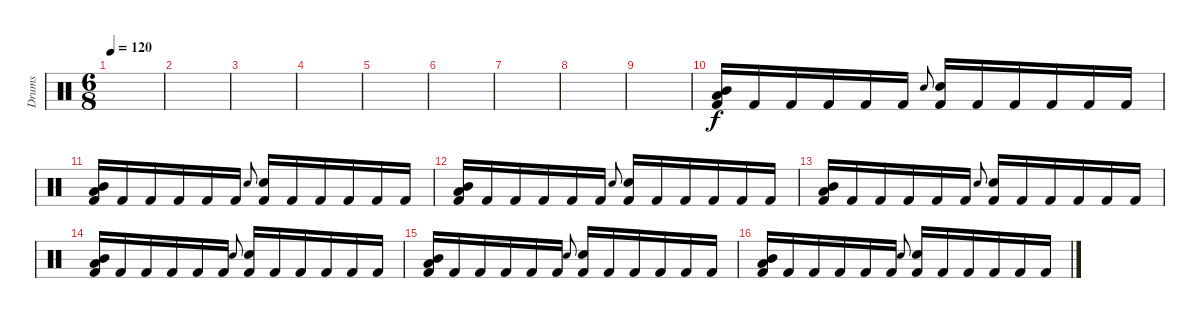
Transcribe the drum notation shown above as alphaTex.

\track ("Drums" "Drums") {instrument percussion}
\staff {score}
\articulation defaults
\ts (6 8)
\tempo 120
\clef neutral
\ks c
|
|
|
|
|
|
|
|
|
("Mid Tom (hit)" "Low Tom (hit)" "Kick (hit) 2").16 "Kick (hit) 2".16 "Kick (hit) 2".16 "Kick (hit) 2".16 "Kick (hit) 2".16 "Kick (hit) 2".16 "Electric Snare (hit)".8{gr onbeat} ("Electric Snare (hit)" "Kick (hit) 2").16 "Kick (hit) 2".16 "Kick (hit) 2".16 "Kick (hit) 2".16 "Kick (hit) 2".16 "Kick (hit) 2".16 |
("Mid Tom (hit)" "Low Tom (hit)" "Kick (hit) 2").16 "Kick (hit) 2".16 "Kick (hit) 2".16 "Kick (hit) 2".16 "Kick (hit) 2".16 "Kick (hit) 2".16 "Electric Snare (hit)".8{gr onbeat} ("Electric Snare (hit)" "Kick (hit) 2").16 "Kick (hit) 2".16 "Kick (hit) 2".16 "Kick (hit) 2".16 "Kick (hit) 2".16 "Kick (hit) 2".16 |
("Mid Tom (hit)" "Low Tom (hit)" "Kick (hit) 2").16 "Kick (hit) 2".16 "Kick (hit) 2".16 "Kick (hit) 2".16 "Kick (hit) 2".16 "Kick (hit) 2".16 "Electric Snare (hit)".8{gr onbeat} ("Electric Snare (hit)" "Kick (hit) 2").16 "Kick (hit) 2".16 "Kick (hit) 2".16 "Kick (hit) 2".16 "Kick (hit) 2".16 "Kick (hit) 2".16 |
("Mid Tom (hit)" "Low Tom (hit)" "Kick (hit) 2").16 "Kick (hit) 2".16 "Kick (hit) 2".16 "Kick (hit) 2".16 "Kick (hit) 2".16 "Kick (hit) 2".16 "Electric Snare (hit)".8{gr onbeat} ("Electric Snare (hit)" "Kick (hit) 2").16 "Kick (hit) 2".16 "Kick (hit) 2".16 "Kick (hit) 2".16 "Kick (hit) 2".16 "Kick (hit) 2".16 |
("Mid Tom (hit)" "Low Tom (hit)" "Kick (hit) 2").16 "Kick (hit) 2".16 "Kick (hit) 2".16 "Kick (hit) 2".16 "Kick (hit) 2".16 "Kick (hit) 2".16 "Electric Snare (hit)".8{gr onbeat} ("Electric Snare (hit)" "Kick (hit) 2").16 "Kick (hit) 2".16 "Kick (hit) 2".16 "Kick (hit) 2".16 "Kick (hit) 2".16 "Kick (hit) 2".16 |
("Mid Tom (hit)" "Low Tom (hit)" "Kick (hit) 2").16 "Kick (hit) 2".16 "Kick (hit) 2".16 "Kick (hit) 2".16 "Kick (hit) 2".16 "Kick (hit) 2".16 "Electric Snare (hit)".8{gr onbeat} ("Electric Snare (hit)" "Kick (hit) 2").16 "Kick (hit) 2".16 "Kick (hit) 2".16 "Kick (hit) 2".16 "Kick (hit) 2".16 "Kick (hit) 2".16 |
("Mid Tom (hit)" "Low Tom (hit)" "Kick (hit) 2").16 "Kick (hit) 2".16 "Kick (hit) 2".16 "Kick (hit) 2".16 "Kick (hit) 2".16 "Kick (hit) 2".16 "Electric Snare (hit)".8{gr onbeat} ("Electric Snare (hit)" "Kick (hit) 2").16 "Kick (hit) 2".16 "Kick (hit) 2".16 "Kick (hit) 2".16 "Kick (hit) 2".16 "Kick (hit) 2".16
